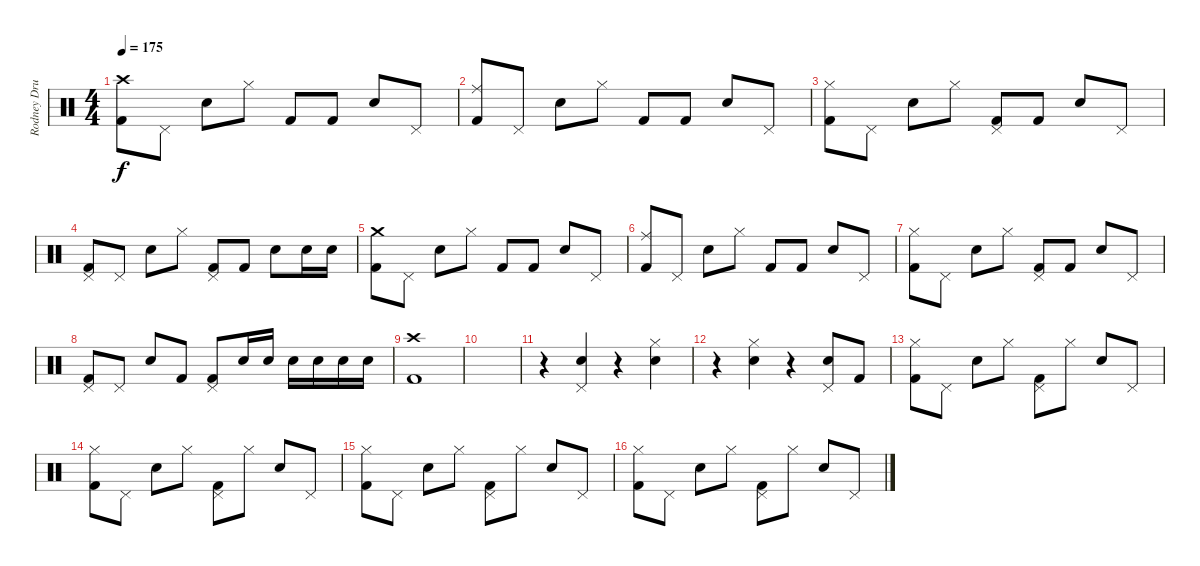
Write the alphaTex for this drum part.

\track ("Rodney Drums" "Rodney Dru") {instrument percussion}
\staff {score}
\articulation defaults
\ts (4 4)
\tempo 175
\clef neutral
\ks c
("Crash high (hit)" "Kick (hit) 2").8{dy f} "Pedal Hi-Hat (hit)".8 "Electric Snare (hit)".8 "Hi-Hat (closed)".8 "Kick (hit) 2".8 "Kick (hit) 2".8 "Electric Snare (hit)".8 "Pedal Hi-Hat (hit)".8 |
("Ride (middle)" "Kick (hit) 2").8 "Pedal Hi-Hat (hit)".8 "Electric Snare (hit)".8 "Hi-Hat (closed)".8 "Kick (hit) 2".8 "Kick (hit) 2".8 "Electric Snare (hit)".8 "Pedal Hi-Hat (hit)".8 |
("Hi-Hat (closed)" "Kick (hit) 2").8 "Pedal Hi-Hat (hit)".8 "Electric Snare (hit)".8 "Hi-Hat (closed)".8 ("Pedal Hi-Hat (hit)" "Kick (hit) 2").8 "Kick (hit) 2".8 "Electric Snare (hit)".8 "Pedal Hi-Hat (hit)".8 |
("Pedal Hi-Hat (hit)" "Kick (hit) 2").8 "Pedal Hi-Hat (hit)".8 "Electric Snare (hit)".8 "Hi-Hat (closed)".8 ("Pedal Hi-Hat (hit)" "Kick (hit) 2").8 "Kick (hit) 2".8 "Electric Snare (hit)".8 "Electric Snare (hit)".16 "Electric Snare (hit)".16 |
("Crash medium (hit)" "Kick (hit) 2").8 "Pedal Hi-Hat (hit)".8 "Electric Snare (hit)".8 "Hi-Hat (closed)".8 "Kick (hit) 2".8 "Kick (hit) 2".8 "Electric Snare (hit)".8 "Pedal Hi-Hat (hit)".8 |
("Ride (middle)" "Kick (hit) 2").8 "Pedal Hi-Hat (hit)".8 "Electric Snare (hit)".8 "Hi-Hat (closed)".8 "Kick (hit) 2".8 "Kick (hit) 2".8 "Electric Snare (hit)".8 "Pedal Hi-Hat (hit)".8 |
("Hi-Hat (closed)" "Kick (hit) 2").8 "Pedal Hi-Hat (hit)".8 "Electric Snare (hit)".8 "Hi-Hat (closed)".8 ("Pedal Hi-Hat (hit)" "Kick (hit) 2").8 "Kick (hit) 2".8 "Electric Snare (hit)".8 "Pedal Hi-Hat (hit)".8 |
("Pedal Hi-Hat (hit)" "Kick (hit) 2").8 "Pedal Hi-Hat (hit)".8 "Electric Snare (hit)".8 "Kick (hit) 2".8 ("Pedal Hi-Hat (hit)" "Kick (hit) 2").8 "Electric Snare (hit)".16 "Electric Snare (hit)".16 "Electric Snare (hit)".16 "Electric Snare (hit)".16 "Electric Snare (hit)".16 "Electric Snare (hit)".16 |
("Crash high (hit)" "Kick (hit) 2").1 |
|
r.4 ("Pedal Hi-Hat (hit)" "Snare (hit) 2").4 r.4 ("Hi-Hat (closed)" "Snare (hit) 2").4 |
r.4 ("Hi-Hat (closed)" "Snare (hit) 2").4 r.4 ("Pedal Hi-Hat (hit)" "Snare (hit) 2").8 "Kick (hit) 2".8 |
("Hi-Hat (closed)" "Kick (hit) 2").8 "Pedal Hi-Hat (hit)".8 "Snare (hit) 2".8 "Hi-Hat (closed)".8 ("Pedal Hi-Hat (hit)" "Kick (hit) 2").8 "Hi-Hat (closed)".8 "Snare (hit) 2".8 "Pedal Hi-Hat (hit)".8 |
("Hi-Hat (closed)" "Kick (hit) 2").8 "Pedal Hi-Hat (hit)".8 "Snare (hit) 2".8 "Hi-Hat (closed)".8 ("Pedal Hi-Hat (hit)" "Kick (hit) 2").8 "Hi-Hat (closed)".8 "Snare (hit) 2".8 "Pedal Hi-Hat (hit)".8 |
("Hi-Hat (closed)" "Kick (hit) 2").8 "Pedal Hi-Hat (hit)".8 "Snare (hit) 2".8 "Hi-Hat (closed)".8 ("Pedal Hi-Hat (hit)" "Kick (hit) 2").8 "Hi-Hat (closed)".8 "Snare (hit) 2".8 "Pedal Hi-Hat (hit)".8 |
("Hi-Hat (closed)" "Kick (hit) 2").8 "Pedal Hi-Hat (hit)".8 "Snare (hit) 2".8 "Hi-Hat (closed)".8 ("Pedal Hi-Hat (hit)" "Kick (hit) 2").8 "Hi-Hat (closed)".8 "Snare (hit) 2".8 "Pedal Hi-Hat (hit)".8
